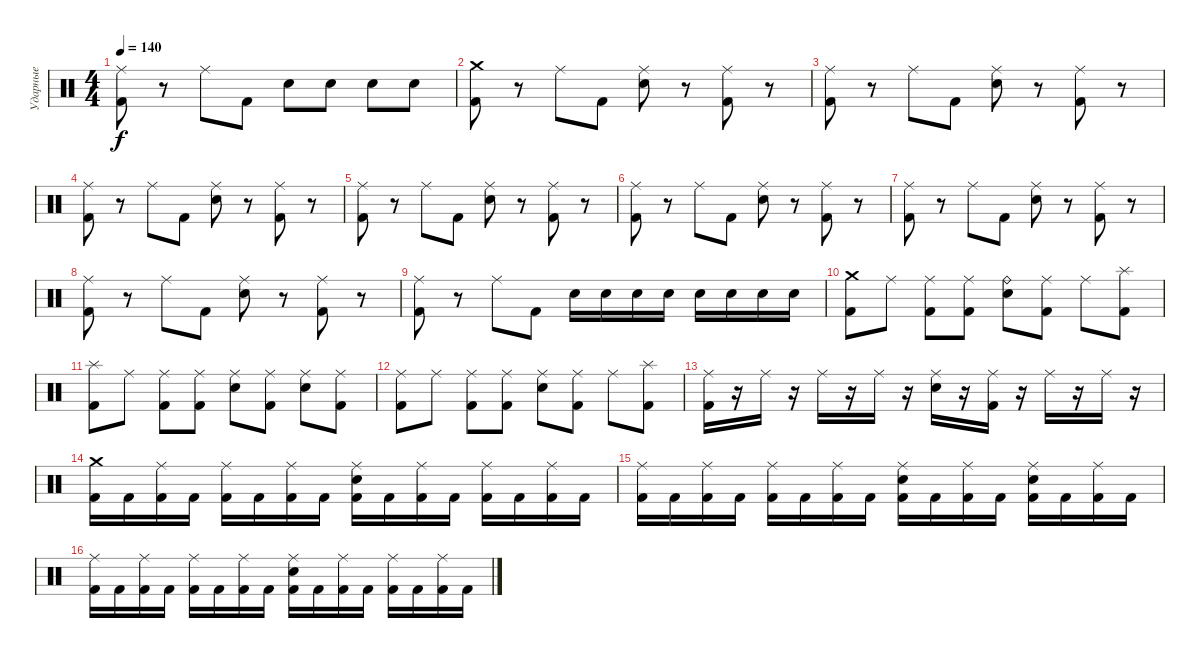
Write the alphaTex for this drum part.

\track ("Ударные" "Ударные") {instrument percussion}
\staff {score}
\articulation defaults
\ts (4 4)
\tempo 140
\clef neutral
\ks c
("Ride (middle)" "Kick (hit) 2").8{dy f} r.8 "Ride (middle)".8 "Kick (hit) 2".8 "Snare (hit) 2".8 "Snare (hit) 2".8 "Snare (hit) 2".8 "Snare (hit) 2".8 |
("Crash medium (hit)" "Kick (hit) 2").8 r.8 "Ride (middle)".8 "Kick (hit) 2".8 ("Ride (middle)" "Snare (hit) 2").8 r.8 ("Ride (middle)" "Kick (hit) 2").8 r.8 |
("Ride (middle)" "Kick (hit) 2").8 r.8 "Ride (middle)".8 "Kick (hit) 2".8 ("Ride (middle)" "Snare (hit) 2").8 r.8 ("Ride (middle)" "Kick (hit) 2").8 r.8 |
("Ride (middle)" "Kick (hit) 2").8 r.8 "Ride (middle)".8 "Kick (hit) 2".8 ("Ride (middle)" "Snare (hit) 2").8 r.8 ("Ride (middle)" "Kick (hit) 2").8 r.8 |
("Ride (middle)" "Kick (hit) 2").8 r.8 "Ride (middle)".8 "Kick (hit) 2".8 ("Ride (middle)" "Snare (hit) 2").8 r.8 ("Ride (middle)" "Kick (hit) 2").8 r.8 |
("Ride (middle)" "Kick (hit) 2").8 r.8 "Ride (middle)".8 "Kick (hit) 2".8 ("Ride (middle)" "Snare (hit) 2").8 r.8 ("Ride (middle)" "Kick (hit) 2").8 r.8 |
("Ride (middle)" "Kick (hit) 2").8 r.8 "Ride (middle)".8 "Kick (hit) 2".8 ("Ride (middle)" "Snare (hit) 2").8 r.8 ("Ride (middle)" "Kick (hit) 2").8 r.8 |
("Ride (middle)" "Kick (hit) 2").8 r.8 "Ride (middle)".8 "Kick (hit) 2".8 ("Ride (middle)" "Snare (hit) 2").8 r.8 ("Ride (middle)" "Kick (hit) 2").8 r.8 |
("Ride (middle)" "Kick (hit) 2").8 r.8 "Ride (middle)".8 "Kick (hit) 2".8 "Snare (hit) 2".16 "Snare (hit) 2".16 "Snare (hit) 2".16 "Snare (hit) 2".16 "Snare (hit) 2".16 "Snare (hit) 2".16 "Snare (hit) 2".16 "Snare (hit) 2".16 |
("Crash medium (hit)" "Kick (hit) 2").8 "Ride (middle)".8 ("Ride (middle)" "Kick (hit) 2").8 ("Ride (middle)" "Kick (hit) 2").8 ("Ride (bell)" "Snare (hit) 2").8 ("Ride (middle)" "Kick (hit) 2").8 "Ride (middle)".8 ("Splash (hit)" "Kick (hit) 2").8 |
("Splash (hit)" "Kick (hit) 2").8 "Ride (middle)".8 ("Ride (middle)" "Kick (hit) 2").8 ("Ride (middle)" "Kick (hit) 2").8 ("Ride (middle)" "Snare (hit) 2").8 ("Ride (middle)" "Kick (hit) 2").8 ("Ride (middle)" "Snare (hit) 2").8 ("Ride (middle)" "Kick (hit) 2").8 |
("Ride (middle)" "Kick (hit) 2").8 "Ride (middle)".8 ("Ride (middle)" "Kick (hit) 2").8 ("Ride (middle)" "Kick (hit) 2").8 ("Ride (middle)" "Snare (hit) 2").8 ("Ride (middle)" "Kick (hit) 2").8 "Ride (middle)".8 ("Splash (hit)" "Kick (hit) 2").8 |
("Ride (middle)" "Kick (hit) 2").16 r.16 "Ride (middle)".16 r.16 "Ride (middle)".16 r.16 "Ride (middle)".16 r.16 ("Ride (middle)" "Snare (hit) 2").16 r.16 ("Ride (middle)" "Kick (hit) 2").16 r.16 "Ride (middle)".16 r.16 "Ride (middle)".16 r.16 |
("Crash medium (hit)" "Kick (hit) 2").16 "Kick (hit) 2".16 ("Ride (middle)" "Kick (hit) 2").16 "Kick (hit) 2".16 ("Ride (middle)" "Kick (hit) 2").16 "Kick (hit) 2".16 ("Ride (middle)" "Kick (hit) 2").16 "Kick (hit) 2".16 ("Ride (middle)" "Snare (hit) 2" "Kick (hit) 2").16 "Kick (hit) 2".16 ("Ride (middle)" "Kick (hit) 2").16 "Kick (hit) 2".16 ("Ride (middle)" "Kick (hit) 2").16 "Kick (hit) 2".16 ("Ride (middle)" "Kick (hit) 2").16 "Kick (hit) 2".16 |
("Ride (middle)" "Kick (hit) 2").16 "Kick (hit) 2".16 ("Ride (middle)" "Kick (hit) 2").16 "Kick (hit) 2".16 ("Ride (middle)" "Kick (hit) 2").16 "Kick (hit) 2".16 ("Ride (middle)" "Kick (hit) 2").16 "Kick (hit) 2".16 ("Ride (middle)" "Snare (hit) 2" "Kick (hit) 2").16 "Kick (hit) 2".16 ("Ride (middle)" "Kick (hit) 2").16 "Kick (hit) 2".16 ("Ride (middle)" "Snare (hit) 2" "Kick (hit) 2").16 "Kick (hit) 2".16 ("Ride (middle)" "Kick (hit) 2").16 "Kick (hit) 2".16 |
("Ride (middle)" "Kick (hit) 2").16 "Kick (hit) 2".16 ("Ride (middle)" "Kick (hit) 2").16 "Kick (hit) 2".16 ("Ride (middle)" "Kick (hit) 2").16 "Kick (hit) 2".16 ("Ride (middle)" "Kick (hit) 2").16 "Kick (hit) 2".16 ("Ride (middle)" "Snare (hit) 2" "Kick (hit) 2").16 "Kick (hit) 2".16 ("Ride (middle)" "Kick (hit) 2").16 "Kick (hit) 2".16 ("Ride (middle)" "Kick (hit) 2").16 "Kick (hit) 2".16 ("Ride (middle)" "Kick (hit) 2").16 "Kick (hit) 2".16
